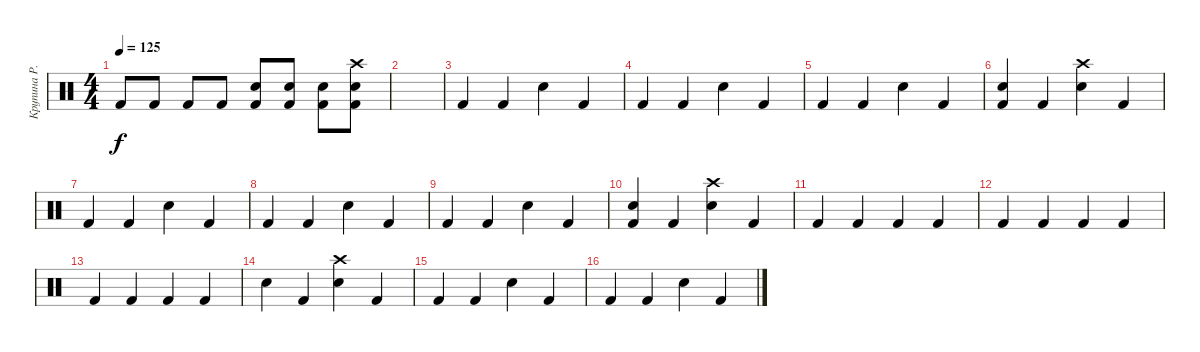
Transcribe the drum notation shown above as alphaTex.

\track ("Крупина Р.В." "Крупина Р.") {instrument percussion}
\staff {score}
\articulation defaults
\ts (4 4)
\tempo 125
\clef neutral
\ks c "Kick (hit) 2".8{dy f} "Kick (hit) 2".8 "Kick (hit) 2".8 "Kick (hit) 2".8
("Kick (hit) 2" "Snare (hit) 2").8 ("Kick (hit) 2" "Snare (hit) 2").8 ("Kick (hit) 2" "Snare (hit) 2").8 ("Crash high (hit)" "Kick (hit) 2" "Snare (hit) 2").8 |
|
"Kick (hit) 2".4 "Kick (hit) 2".4 "Snare (hit) 2".4 "Kick (hit) 2".4 |
"Kick (hit) 2".4 "Kick (hit) 2".4 "Snare (hit) 2".4 "Kick (hit) 2".4 |
"Kick (hit) 2".4 "Kick (hit) 2".4 "Snare (hit) 2".4 "Kick (hit) 2".4 |
("Snare (hit) 2" "Kick (hit) 2").4 "Kick (hit) 2".4 ("Crash high (hit)" "Snare (hit) 2").4 "Kick (hit) 2".4 |
"Kick (hit) 2".4 "Kick (hit) 2".4 "Snare (hit) 2".4 "Kick (hit) 2".4 |
"Kick (hit) 2".4 "Kick (hit) 2".4 "Snare (hit) 2".4 "Kick (hit) 2".4 |
"Kick (hit) 2".4 "Kick (hit) 2".4 "Snare (hit) 2".4 "Kick (hit) 2".4 |
("Snare (hit) 2" "Kick (hit) 2").4 "Kick (hit) 2".4 ("Crash high (hit)" "Snare (hit) 2").4 "Kick (hit) 2".4 |
"Kick (hit) 2".4 "Kick (hit) 2".4 "Kick (hit) 2".4 "Kick (hit) 2".4 |
"Kick (hit) 2".4 "Kick (hit) 2".4 "Kick (hit) 2".4 "Kick (hit) 2".4 |
"Kick (hit) 2".4 "Kick (hit) 2".4 "Kick (hit) 2".4 "Kick (hit) 2".4 |
"Snare (hit) 2".4 "Kick (hit) 2".4 ("Crash high (hit)" "Snare (hit) 2").4 "Kick (hit) 2".4 |
"Kick (hit) 2".4 "Kick (hit) 2".4 "Snare (hit) 2".4 "Kick (hit) 2".4 |
"Kick (hit) 2".4 "Kick (hit) 2".4 "Snare (hit) 2".4 "Kick (hit) 2".4
